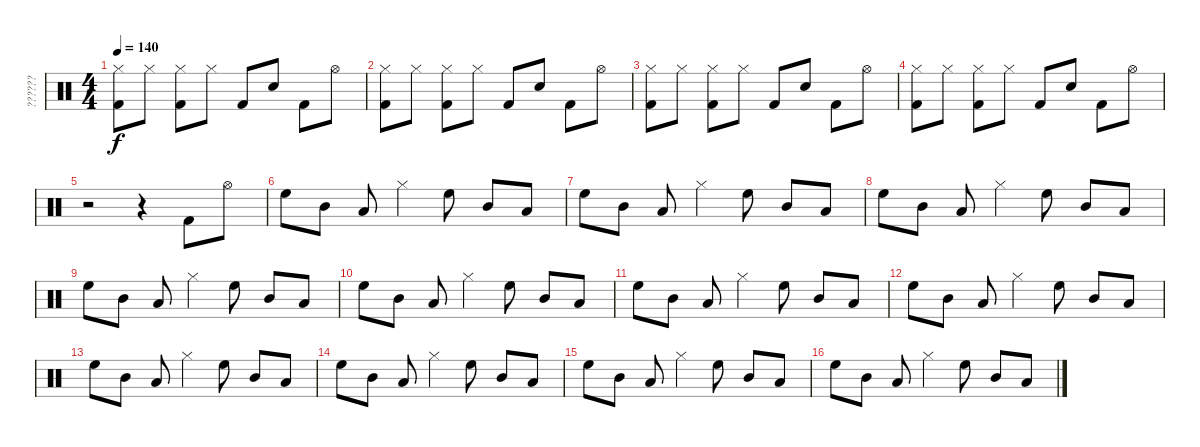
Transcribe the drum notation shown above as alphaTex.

\track ("??????" "??????") {instrument percussion}
\staff {score}
\articulation defaults
\ts (4 4)
\tempo 140
\clef neutral
\ks c
("Hi-Hat (closed)" "Kick (hit) 2").8{dy f} "Hi-Hat (closed)".8 ("Hi-Hat (closed)" "Kick (hit) 2").8 "Hi-Hat (closed)".8 "Kick (hit) 2".8 "Snare (hit) 2".8 "Kick (hit) 2".8 "Hi-Hat (open)".8 |
("Hi-Hat (closed)" "Kick (hit) 2").8 "Hi-Hat (closed)".8 ("Hi-Hat (closed)" "Kick (hit) 2").8 "Hi-Hat (closed)".8 "Kick (hit) 2".8 "Snare (hit) 2".8 "Kick (hit) 2".8 "Hi-Hat (open)".8 |
("Hi-Hat (closed)" "Kick (hit) 2").8 "Hi-Hat (closed)".8 ("Hi-Hat (closed)" "Kick (hit) 2").8 "Hi-Hat (closed)".8 "Kick (hit) 2".8 "Snare (hit) 2".8 "Kick (hit) 2".8 "Hi-Hat (open)".8 |
("Hi-Hat (closed)" "Kick (hit) 2").8 "Hi-Hat (closed)".8 ("Hi-Hat (closed)" "Kick (hit) 2").8 "Hi-Hat (closed)".8 "Kick (hit) 2".8 "Snare (hit) 2".8 "Kick (hit) 2".8 "Hi-Hat (open)".8 |
r.2 r.4 "Kick (hit) 2".8 "Hi-Hat (open)".8 |
"High Floor Tom (hit)".8 "Mid Tom (hit)".8 "Low Tom (hit)".8 "Hi-Hat (closed)".4 "High Floor Tom (hit)".8 "Mid Tom (hit)".8 "Low Tom (hit)".8 |
"High Floor Tom (hit)".8 "Mid Tom (hit)".8 "Low Tom (hit)".8 "Hi-Hat (closed)".4 "High Floor Tom (hit)".8 "Mid Tom (hit)".8 "Low Tom (hit)".8 |
"High Floor Tom (hit)".8 "Mid Tom (hit)".8 "Low Tom (hit)".8 "Hi-Hat (closed)".4 "High Floor Tom (hit)".8 "Mid Tom (hit)".8 "Low Tom (hit)".8 |
"High Floor Tom (hit)".8 "Mid Tom (hit)".8 "Low Tom (hit)".8 "Hi-Hat (closed)".4 "High Floor Tom (hit)".8 "Mid Tom (hit)".8 "Low Tom (hit)".8 |
"High Floor Tom (hit)".8 "Mid Tom (hit)".8 "Low Tom (hit)".8 "Hi-Hat (closed)".4 "High Floor Tom (hit)".8 "Mid Tom (hit)".8 "Low Tom (hit)".8 |
"High Floor Tom (hit)".8 "Mid Tom (hit)".8 "Low Tom (hit)".8 "Hi-Hat (closed)".4 "High Floor Tom (hit)".8 "Mid Tom (hit)".8 "Low Tom (hit)".8 |
"High Floor Tom (hit)".8 "Mid Tom (hit)".8 "Low Tom (hit)".8 "Hi-Hat (closed)".4 "High Floor Tom (hit)".8 "Mid Tom (hit)".8 "Low Tom (hit)".8 |
"High Floor Tom (hit)".8 "Mid Tom (hit)".8 "Low Tom (hit)".8 "Hi-Hat (closed)".4 "High Floor Tom (hit)".8 "Mid Tom (hit)".8 "Low Tom (hit)".8 |
"High Floor Tom (hit)".8 "Mid Tom (hit)".8 "Low Tom (hit)".8 "Hi-Hat (closed)".4 "High Floor Tom (hit)".8 "Mid Tom (hit)".8 "Low Tom (hit)".8 |
"High Floor Tom (hit)".8 "Mid Tom (hit)".8 "Low Tom (hit)".8 "Hi-Hat (closed)".4 "High Floor Tom (hit)".8 "Mid Tom (hit)".8 "Low Tom (hit)".8 |
"High Floor Tom (hit)".8 "Mid Tom (hit)".8 "Low Tom (hit)".8 "Hi-Hat (closed)".4 "High Floor Tom (hit)".8 "Mid Tom (hit)".8 "Low Tom (hit)".8
